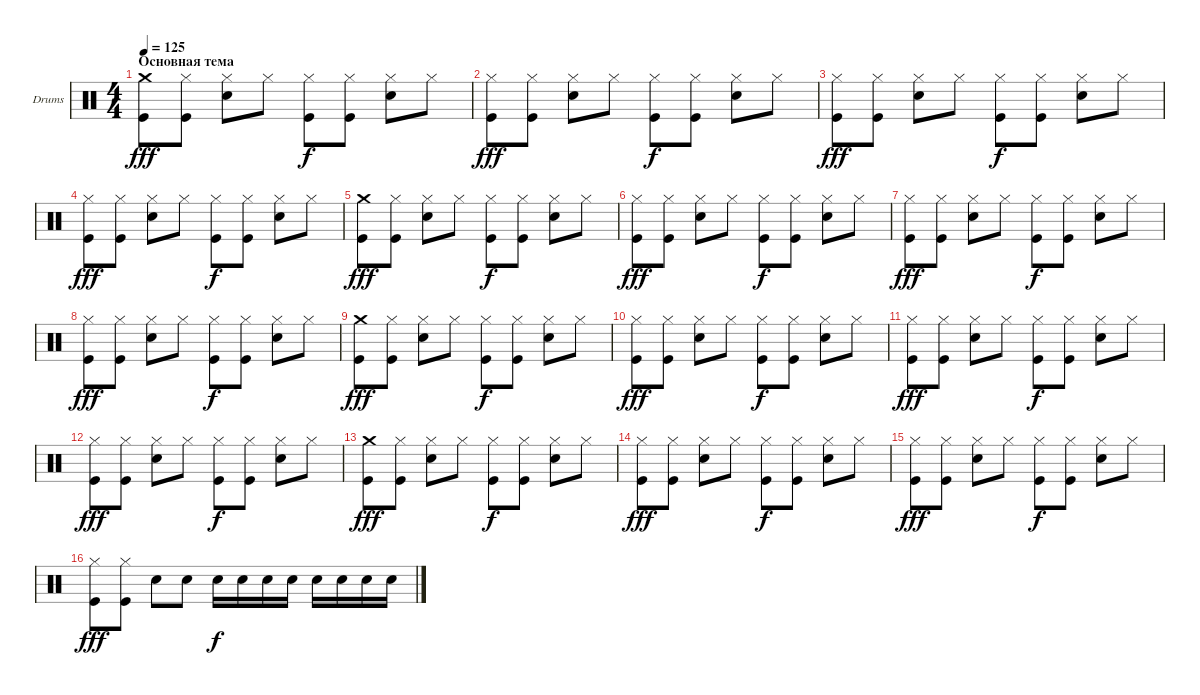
\defaultSystemsLayout 4
\bracketExtendMode groupsimilarinstruments
\firstSystemTrackNameOrientation horizontal
\otherSystemsTrackNameOrientation horizontal
\track ("Drumkit" "Drums") {instrument percussion}
\staff {score}
\articulation defaults
\ts (4 4)
\section ("" "Основная тема")
\tempo 125
\clef neutral
\ks c
("Crash medium (hit)" "Kick (hit)").8{dy fff} ("Hi-Hat (closed)" "Kick (hit)").8 ("Hi-Hat (closed)" "Snare (hit) 2").8 "Hi-Hat (closed)".8 ("Hi-Hat (closed)" "Kick (hit)").8{dy f} ("Hi-Hat (closed)" "Kick (hit)").8 ("Hi-Hat (closed)" "Snare (hit) 2").8 "Hi-Hat (closed)".8 |
("Hi-Hat (closed)" "Kick (hit)").8{dy fff} ("Hi-Hat (closed)" "Kick (hit)").8 ("Hi-Hat (closed)" "Snare (hit) 2").8 "Hi-Hat (closed)".8 ("Hi-Hat (closed)" "Kick (hit)").8{dy f} ("Hi-Hat (closed)" "Kick (hit)").8 ("Hi-Hat (closed)" "Snare (hit) 2").8 "Hi-Hat (closed)".8 |
("Hi-Hat (closed)" "Kick (hit)").8{dy fff} ("Hi-Hat (closed)" "Kick (hit)").8 ("Hi-Hat (closed)" "Snare (hit) 2").8 "Hi-Hat (closed)".8 ("Hi-Hat (closed)" "Kick (hit)").8{dy f} ("Hi-Hat (closed)" "Kick (hit)").8 ("Hi-Hat (closed)" "Snare (hit) 2").8 "Hi-Hat (closed)".8 |
("Hi-Hat (closed)" "Kick (hit)").8{dy fff} ("Hi-Hat (closed)" "Kick (hit)").8 ("Hi-Hat (closed)" "Snare (hit) 2").8 "Hi-Hat (closed)".8 ("Hi-Hat (closed)" "Kick (hit)").8{dy f} ("Hi-Hat (closed)" "Kick (hit)").8 ("Hi-Hat (closed)" "Snare (hit) 2").8 "Hi-Hat (closed)".8 |
("Crash medium (hit)" "Kick (hit)").8{dy fff} ("Hi-Hat (closed)" "Kick (hit)").8 ("Hi-Hat (closed)" "Snare (hit) 2").8 "Hi-Hat (closed)".8 ("Hi-Hat (closed)" "Kick (hit)").8{dy f} ("Hi-Hat (closed)" "Kick (hit)").8 ("Hi-Hat (closed)" "Snare (hit) 2").8 "Hi-Hat (closed)".8 |
("Hi-Hat (closed)" "Kick (hit)").8{dy fff} ("Hi-Hat (closed)" "Kick (hit)").8 ("Hi-Hat (closed)" "Snare (hit) 2").8 "Hi-Hat (closed)".8 ("Hi-Hat (closed)" "Kick (hit)").8{dy f} ("Hi-Hat (closed)" "Kick (hit)").8 ("Hi-Hat (closed)" "Snare (hit) 2").8 "Hi-Hat (closed)".8 |
("Hi-Hat (closed)" "Kick (hit)").8{dy fff} ("Hi-Hat (closed)" "Kick (hit)").8 ("Hi-Hat (closed)" "Snare (hit) 2").8 "Hi-Hat (closed)".8 ("Hi-Hat (closed)" "Kick (hit)").8{dy f} ("Hi-Hat (closed)" "Kick (hit)").8 ("Hi-Hat (closed)" "Snare (hit) 2").8 "Hi-Hat (closed)".8 |
("Hi-Hat (closed)" "Kick (hit)").8{dy fff} ("Hi-Hat (closed)" "Kick (hit)").8 ("Hi-Hat (closed)" "Snare (hit) 2").8 "Hi-Hat (closed)".8 ("Hi-Hat (closed)" "Kick (hit)").8{dy f} ("Hi-Hat (closed)" "Kick (hit)").8 ("Hi-Hat (closed)" "Snare (hit) 2").8 "Hi-Hat (closed)".8 |
("Crash medium (hit)" "Kick (hit)").8{dy fff} ("Hi-Hat (closed)" "Kick (hit)").8 ("Hi-Hat (closed)" "Snare (hit) 2").8 "Hi-Hat (closed)".8 ("Hi-Hat (closed)" "Kick (hit)").8{dy f} ("Hi-Hat (closed)" "Kick (hit)").8 ("Hi-Hat (closed)" "Snare (hit) 2").8 "Hi-Hat (closed)".8 |
("Hi-Hat (closed)" "Kick (hit)").8{dy fff} ("Hi-Hat (closed)" "Kick (hit)").8 ("Hi-Hat (closed)" "Snare (hit) 2").8 "Hi-Hat (closed)".8 ("Hi-Hat (closed)" "Kick (hit)").8{dy f} ("Hi-Hat (closed)" "Kick (hit)").8 ("Hi-Hat (closed)" "Snare (hit) 2").8 "Hi-Hat (closed)".8 |
("Hi-Hat (closed)" "Kick (hit)").8{dy fff} ("Hi-Hat (closed)" "Kick (hit)").8 ("Hi-Hat (closed)" "Snare (hit) 2").8 "Hi-Hat (closed)".8 ("Hi-Hat (closed)" "Kick (hit)").8{dy f} ("Hi-Hat (closed)" "Kick (hit)").8 ("Hi-Hat (closed)" "Snare (hit) 2").8 "Hi-Hat (closed)".8 |
("Hi-Hat (closed)" "Kick (hit)").8{dy fff} ("Hi-Hat (closed)" "Kick (hit)").8 ("Hi-Hat (closed)" "Snare (hit) 2").8 "Hi-Hat (closed)".8 ("Hi-Hat (closed)" "Kick (hit)").8{dy f} ("Hi-Hat (closed)" "Kick (hit)").8 ("Hi-Hat (closed)" "Snare (hit) 2").8 "Hi-Hat (closed)".8 |
("Crash medium (hit)" "Kick (hit)").8{dy fff} ("Hi-Hat (closed)" "Kick (hit)").8 ("Hi-Hat (closed)" "Snare (hit) 2").8 "Hi-Hat (closed)".8 ("Hi-Hat (closed)" "Kick (hit)").8{dy f} ("Hi-Hat (closed)" "Kick (hit)").8 ("Hi-Hat (closed)" "Snare (hit) 2").8 "Hi-Hat (closed)".8 |
("Hi-Hat (closed)" "Kick (hit)").8{dy fff} ("Hi-Hat (closed)" "Kick (hit)").8 ("Hi-Hat (closed)" "Snare (hit) 2").8 "Hi-Hat (closed)".8 ("Hi-Hat (closed)" "Kick (hit)").8{dy f} ("Hi-Hat (closed)" "Kick (hit)").8 ("Hi-Hat (closed)" "Snare (hit) 2").8 "Hi-Hat (closed)".8 |
("Hi-Hat (closed)" "Kick (hit)").8{dy fff} ("Hi-Hat (closed)" "Kick (hit)").8 ("Hi-Hat (closed)" "Snare (hit) 2").8 "Hi-Hat (closed)".8 ("Hi-Hat (closed)" "Kick (hit)").8{dy f} ("Hi-Hat (closed)" "Kick (hit)").8 ("Hi-Hat (closed)" "Snare (hit) 2").8 "Hi-Hat (closed)".8 |
("Hi-Hat (closed)" "Kick (hit)").8{dy fff} ("Hi-Hat (closed)" "Kick (hit)").8 "Snare (hit) 2".8 "Snare (hit) 2".8 "Snare (hit) 2".16{dy f} "Snare (hit) 2".16 "Snare (hit) 2".16 "Snare (hit) 2".16 "Snare (hit) 2".16 "Snare (hit) 2".16 "Snare (hit) 2".16 "Snare (hit) 2".16
